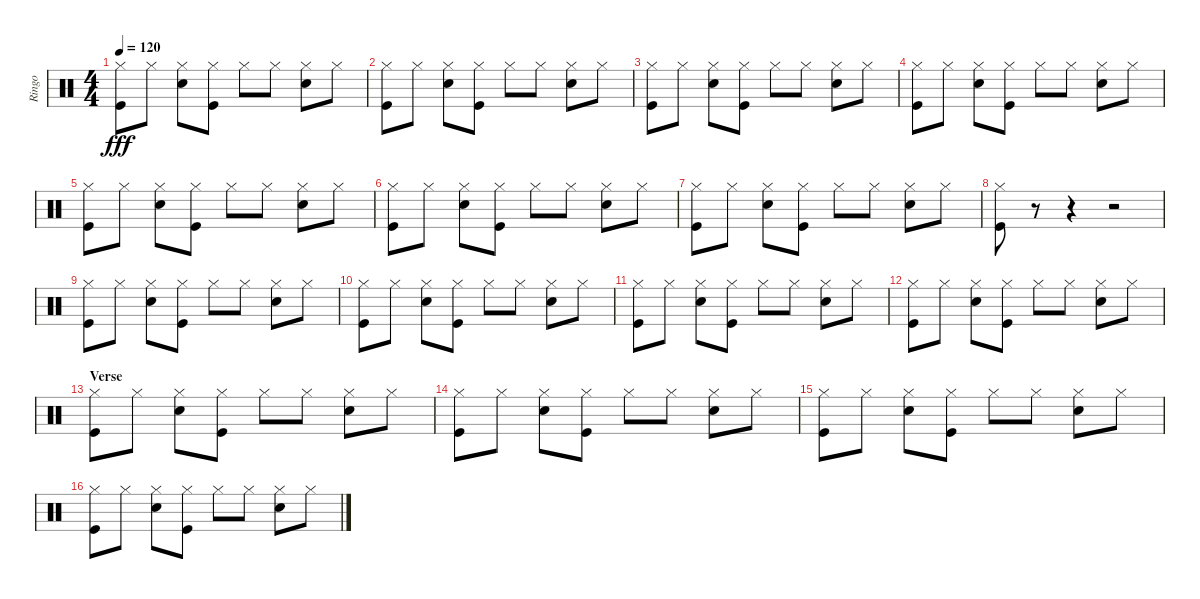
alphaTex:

\track ("Ringo" "Ringo") {instrument percussion}
\staff {score}
\articulation defaults
\ts (4 4)
\tempo 120
\clef neutral
\ks c
("Hi-Hat (closed)" "Kick (hit)").8{dy fff} "Hi-Hat (closed)".8 ("Hi-Hat (closed)" "Electric Snare (hit)").8 ("Hi-Hat (closed)" "Kick (hit)").8 "Hi-Hat (closed)".8 "Hi-Hat (closed)".8 ("Hi-Hat (closed)" "Electric Snare (hit)").8 "Hi-Hat (closed)".8 |
("Hi-Hat (closed)" "Kick (hit)").8 "Hi-Hat (closed)".8 ("Hi-Hat (closed)" "Electric Snare (hit)").8 ("Hi-Hat (closed)" "Kick (hit)").8 "Hi-Hat (closed)".8 "Hi-Hat (closed)".8 ("Hi-Hat (closed)" "Electric Snare (hit)").8 "Hi-Hat (closed)".8 |
("Hi-Hat (closed)" "Kick (hit)").8 "Hi-Hat (closed)".8 ("Hi-Hat (closed)" "Electric Snare (hit)").8 ("Hi-Hat (closed)" "Kick (hit)").8 "Hi-Hat (closed)".8 "Hi-Hat (closed)".8 ("Hi-Hat (closed)" "Electric Snare (hit)").8 "Hi-Hat (closed)".8 |
("Hi-Hat (closed)" "Kick (hit)").8 "Hi-Hat (closed)".8 ("Hi-Hat (closed)" "Electric Snare (hit)").8 ("Hi-Hat (closed)" "Kick (hit)").8 "Hi-Hat (closed)".8 "Hi-Hat (closed)".8 ("Hi-Hat (closed)" "Electric Snare (hit)").8 "Hi-Hat (closed)".8 |
("Hi-Hat (closed)" "Kick (hit)").8 "Hi-Hat (closed)".8 ("Hi-Hat (closed)" "Electric Snare (hit)").8 ("Hi-Hat (closed)" "Kick (hit)").8 "Hi-Hat (closed)".8 "Hi-Hat (closed)".8 ("Hi-Hat (closed)" "Electric Snare (hit)").8 "Hi-Hat (closed)".8 |
("Hi-Hat (closed)" "Kick (hit)").8 "Hi-Hat (closed)".8 ("Hi-Hat (closed)" "Electric Snare (hit)").8 ("Hi-Hat (closed)" "Kick (hit)").8 "Hi-Hat (closed)".8 "Hi-Hat (closed)".8 ("Hi-Hat (closed)" "Electric Snare (hit)").8 "Hi-Hat (closed)".8 |
("Hi-Hat (closed)" "Kick (hit)").8 "Hi-Hat (closed)".8 ("Hi-Hat (closed)" "Electric Snare (hit)").8 ("Hi-Hat (closed)" "Kick (hit)").8 "Hi-Hat (closed)".8 "Hi-Hat (closed)".8 ("Hi-Hat (closed)" "Electric Snare (hit)").8 "Hi-Hat (closed)".8 |
("Hi-Hat (closed)" "Kick (hit)").8 r.8 r.4 r.2 |
("Hi-Hat (closed)" "Kick (hit)").8 "Hi-Hat (closed)".8 ("Hi-Hat (closed)" "Electric Snare (hit)").8 ("Hi-Hat (closed)" "Kick (hit)").8 "Hi-Hat (closed)".8 "Hi-Hat (closed)".8 ("Hi-Hat (closed)" "Electric Snare (hit)").8 "Hi-Hat (closed)".8 |
("Hi-Hat (closed)" "Kick (hit)").8 "Hi-Hat (closed)".8 ("Hi-Hat (closed)" "Electric Snare (hit)").8 ("Hi-Hat (closed)" "Kick (hit)").8 "Hi-Hat (closed)".8 "Hi-Hat (closed)".8 ("Hi-Hat (closed)" "Electric Snare (hit)").8 "Hi-Hat (closed)".8 |
("Hi-Hat (closed)" "Kick (hit)").8 "Hi-Hat (closed)".8 ("Hi-Hat (closed)" "Electric Snare (hit)").8 ("Hi-Hat (closed)" "Kick (hit)").8 "Hi-Hat (closed)".8 "Hi-Hat (closed)".8 ("Hi-Hat (closed)" "Electric Snare (hit)").8 "Hi-Hat (closed)".8 |
("Hi-Hat (closed)" "Kick (hit)").8 "Hi-Hat (closed)".8 ("Hi-Hat (closed)" "Electric Snare (hit)").8 ("Hi-Hat (closed)" "Kick (hit)").8 "Hi-Hat (closed)".8 "Hi-Hat (closed)".8 ("Hi-Hat (closed)" "Electric Snare (hit)").8 "Hi-Hat (closed)".8 |
\section ("" "Verse")
("Hi-Hat (closed)" "Kick (hit)").8 "Hi-Hat (closed)".8 ("Hi-Hat (closed)" "Electric Snare (hit)").8 ("Hi-Hat (closed)" "Kick (hit)").8 "Hi-Hat (closed)".8 "Hi-Hat (closed)".8 ("Hi-Hat (closed)" "Electric Snare (hit)").8 "Hi-Hat (closed)".8 |
("Hi-Hat (closed)" "Kick (hit)").8 "Hi-Hat (closed)".8 ("Hi-Hat (closed)" "Electric Snare (hit)").8 ("Hi-Hat (closed)" "Kick (hit)").8 "Hi-Hat (closed)".8 "Hi-Hat (closed)".8 ("Hi-Hat (closed)" "Electric Snare (hit)").8 "Hi-Hat (closed)".8 |
("Hi-Hat (closed)" "Kick (hit)").8 "Hi-Hat (closed)".8 ("Hi-Hat (closed)" "Electric Snare (hit)").8 ("Hi-Hat (closed)" "Kick (hit)").8 "Hi-Hat (closed)".8 "Hi-Hat (closed)".8 ("Hi-Hat (closed)" "Electric Snare (hit)").8 "Hi-Hat (closed)".8 |
("Hi-Hat (closed)" "Kick (hit)").8 "Hi-Hat (closed)".8 ("Hi-Hat (closed)" "Electric Snare (hit)").8 ("Hi-Hat (closed)" "Kick (hit)").8 "Hi-Hat (closed)".8 "Hi-Hat (closed)".8 ("Hi-Hat (closed)" "Electric Snare (hit)").8 "Hi-Hat (closed)".8
